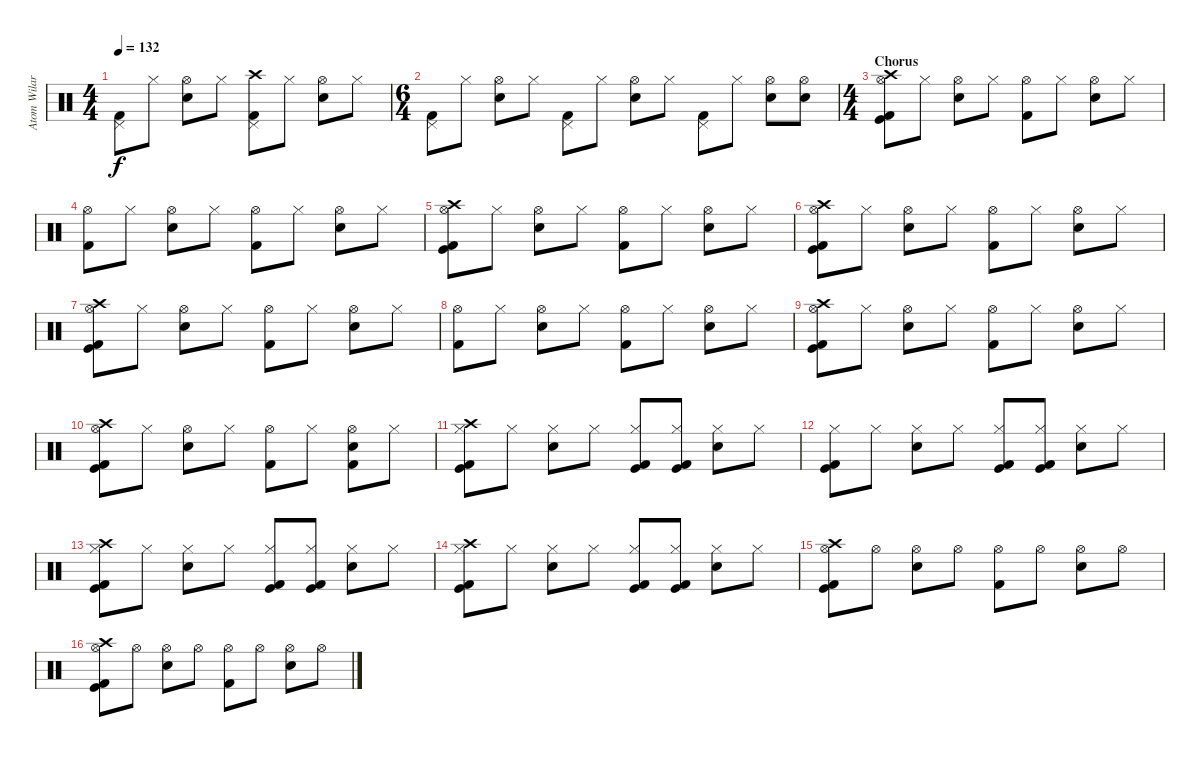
\track ("Atom Wilard or Ron Welty ?" "Atom Wilar") {instrument percussion}
\staff {score}
\articulation defaults
\ts (4 4)
\tempo 132
\clef neutral
\ks c
("Pedal Hi-Hat (hit)" "Kick (hit) 2").8{dy f} "Hi-Hat (closed)".8 ("Hi-Hat (open)" "Electric Snare (hit)").8 "Hi-Hat (closed)".8 ("Pedal Hi-Hat (hit)" "Crash high (hit)" "Kick (hit) 2").8 "Hi-Hat (closed)".8 ("Hi-Hat (open)" "Electric Snare (hit)").8 "Hi-Hat (closed)".8 |
\ts (6 4)
("Pedal Hi-Hat (hit)" "Kick (hit) 2").8 "Hi-Hat (closed)".8 ("Hi-Hat (open)" "Electric Snare (hit)").8 "Hi-Hat (closed)".8 ("Pedal Hi-Hat (hit)" "Kick (hit) 2").8 "Hi-Hat (closed)".8 ("Hi-Hat (open)" "Electric Snare (hit)").8 "Hi-Hat (closed)".8 ("Pedal Hi-Hat (hit)" "Kick (hit) 2").8 "Hi-Hat (closed)".8 ("Hi-Hat (open)" "Electric Snare (hit)").8 ("Hi-Hat (open)" "Electric Snare (hit)").8 |
\ts (4 4)
\section ("" "Chorus")
("Hi-Hat (open)" "Crash high (hit)" "Kick (hit)" "Kick (hit) 2").8 "Hi-Hat (closed)".8 ("Hi-Hat (open)" "Electric Snare (hit)").8 "Hi-Hat (closed)".8 ("Hi-Hat (open)" "Kick (hit) 2").8 "Hi-Hat (closed)".8 ("Hi-Hat (open)" "Electric Snare (hit)").8 "Hi-Hat (closed)".8 |
("Hi-Hat (open)" "Kick (hit) 2").8 "Hi-Hat (closed)".8 ("Hi-Hat (open)" "Electric Snare (hit)").8 "Hi-Hat (closed)".8 ("Hi-Hat (open)" "Kick (hit) 2").8 "Hi-Hat (closed)".8 ("Hi-Hat (open)" "Electric Snare (hit)").8 "Hi-Hat (closed)".8 |
("Hi-Hat (open)" "Crash high (hit)" "Kick (hit)" "Kick (hit) 2").8 "Hi-Hat (closed)".8 ("Hi-Hat (open)" "Electric Snare (hit)").8 "Hi-Hat (closed)".8 ("Hi-Hat (open)" "Kick (hit) 2").8 "Hi-Hat (closed)".8 ("Hi-Hat (open)" "Electric Snare (hit)").8 "Hi-Hat (closed)".8 |
("Hi-Hat (open)" "Crash high (hit)" "Kick (hit)" "Kick (hit) 2").8 "Hi-Hat (closed)".8 ("Hi-Hat (open)" "Electric Snare (hit)").8 "Hi-Hat (closed)".8 ("Hi-Hat (open)" "Kick (hit) 2").8 "Hi-Hat (closed)".8 ("Hi-Hat (open)" "Electric Snare (hit)").8 "Hi-Hat (closed)".8 |
("Hi-Hat (open)" "Crash high (hit)" "Kick (hit)" "Kick (hit) 2").8 "Hi-Hat (closed)".8 ("Hi-Hat (open)" "Electric Snare (hit)").8 "Hi-Hat (closed)".8 ("Hi-Hat (open)" "Kick (hit) 2").8 "Hi-Hat (closed)".8 ("Hi-Hat (open)" "Electric Snare (hit)").8 "Hi-Hat (closed)".8 |
("Hi-Hat (open)" "Kick (hit) 2").8 "Hi-Hat (closed)".8 ("Hi-Hat (open)" "Electric Snare (hit)").8 "Hi-Hat (closed)".8 ("Hi-Hat (open)" "Kick (hit) 2").8 "Hi-Hat (closed)".8 ("Hi-Hat (open)" "Electric Snare (hit)").8 "Hi-Hat (closed)".8 |
("Hi-Hat (open)" "Crash high (hit)" "Kick (hit)" "Kick (hit) 2").8 "Hi-Hat (closed)".8 ("Hi-Hat (open)" "Electric Snare (hit)").8 "Hi-Hat (closed)".8 ("Hi-Hat (open)" "Kick (hit) 2").8 "Hi-Hat (closed)".8 ("Hi-Hat (open)" "Electric Snare (hit)").8 "Hi-Hat (closed)".8 |
("Hi-Hat (open)" "Crash high (hit)" "Kick (hit)" "Kick (hit) 2").8 "Hi-Hat (closed)".8 ("Hi-Hat (open)" "Electric Snare (hit)").8 "Hi-Hat (closed)".8 ("Hi-Hat (open)" "Kick (hit) 2").8 "Hi-Hat (closed)".8 ("Hi-Hat (open)" "Electric Snare (hit)" "Kick (hit) 2").8 "Hi-Hat (closed)".8 |
("Hi-Hat (closed)" "Crash high (hit)" "Kick (hit)" "Kick (hit) 2").8 "Hi-Hat (closed)".8 ("Hi-Hat (closed)" "Electric Snare (hit)").8 "Hi-Hat (closed)".8 ("Hi-Hat (closed)" "Kick (hit)" "Kick (hit) 2").8 ("Hi-Hat (closed)" "Kick (hit)" "Kick (hit) 2").8 ("Hi-Hat (closed)" "Electric Snare (hit)").8 "Hi-Hat (closed)".8 |
("Hi-Hat (closed)" "Kick (hit)" "Kick (hit) 2").8 "Hi-Hat (closed)".8 ("Hi-Hat (closed)" "Electric Snare (hit)").8 "Hi-Hat (closed)".8 ("Hi-Hat (closed)" "Kick (hit)" "Kick (hit) 2").8 ("Hi-Hat (closed)" "Kick (hit)" "Kick (hit) 2").8 ("Hi-Hat (closed)" "Electric Snare (hit)").8 "Hi-Hat (closed)".8 |
("Hi-Hat (closed)" "Crash high (hit)" "Kick (hit)" "Kick (hit) 2").8 "Hi-Hat (closed)".8 ("Hi-Hat (closed)" "Electric Snare (hit)").8 "Hi-Hat (closed)".8 ("Hi-Hat (closed)" "Kick (hit)" "Kick (hit) 2").8 ("Hi-Hat (closed)" "Kick (hit)" "Kick (hit) 2").8 ("Hi-Hat (closed)" "Electric Snare (hit)").8 "Hi-Hat (closed)".8 |
("Hi-Hat (closed)" "Crash high (hit)" "Kick (hit)" "Kick (hit) 2").8 "Hi-Hat (closed)".8 ("Hi-Hat (closed)" "Electric Snare (hit)").8 "Hi-Hat (closed)".8 ("Hi-Hat (closed)" "Kick (hit)" "Kick (hit) 2").8 ("Hi-Hat (closed)" "Kick (hit)" "Kick (hit) 2").8 ("Hi-Hat (closed)" "Electric Snare (hit)").8 "Hi-Hat (closed)".8 |
("Hi-Hat (open)" "Crash high (hit)" "Kick (hit)" "Kick (hit) 2").8 "Hi-Hat (open)".8 ("Hi-Hat (open)" "Electric Snare (hit)").8 "Hi-Hat (open)".8 ("Hi-Hat (open)" "Kick (hit) 2").8 "Hi-Hat (open)".8 ("Hi-Hat (open)" "Electric Snare (hit)").8 "Hi-Hat (open)".8 |
("Hi-Hat (open)" "Crash high (hit)" "Kick (hit)" "Kick (hit) 2").8 "Hi-Hat (open)".8 ("Hi-Hat (open)" "Electric Snare (hit)").8 "Hi-Hat (open)".8 ("Hi-Hat (open)" "Kick (hit) 2").8 "Hi-Hat (open)".8 ("Hi-Hat (open)" "Electric Snare (hit)").8 "Hi-Hat (open)".8
